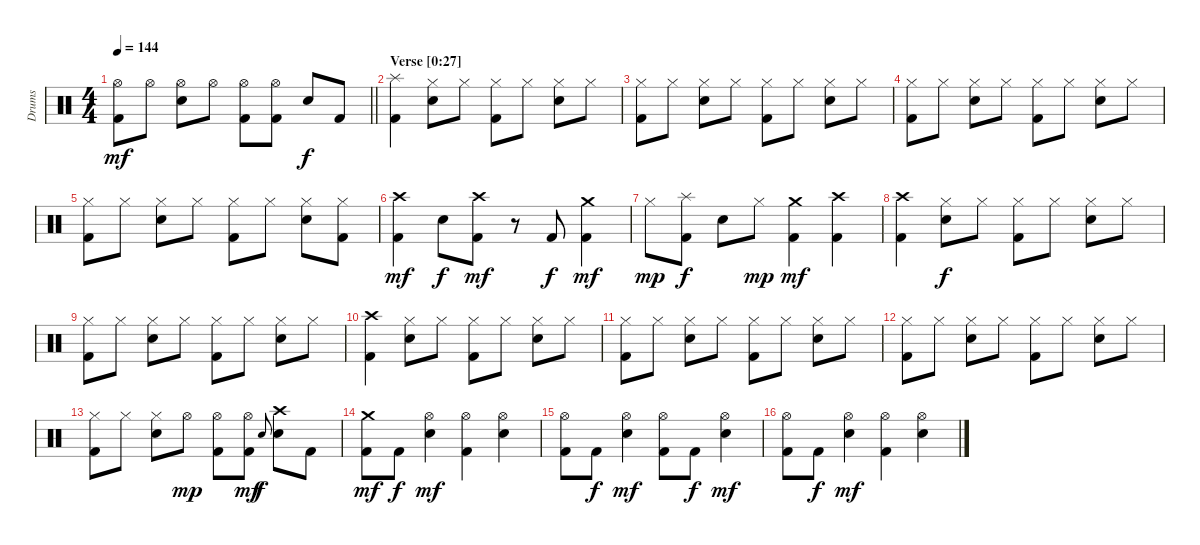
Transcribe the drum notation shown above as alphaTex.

\track ("Drums" "Drums") {instrument percussion}
\staff {score}
\articulation defaults
\ts (4 4)
\tempo 144
\clef neutral
\barLineRight lightlight
\ks c
("Hi-Hat (open)" "Kick (hit) 2").8{dy mf} "Hi-Hat (open)".8 ("Hi-Hat (open)" "Snare (hit) 2").8 "Hi-Hat (open)".8 ("Hi-Hat (open)" "Kick (hit) 2").8 ("Hi-Hat (open)" "Kick (hit) 2").8 "Snare (hit) 2".8{dy f} "Kick (hit) 2".8 |
\section ("" "Verse [0:27]")
("Splash (hit)" "Kick (hit) 2").4 ("Hi-Hat (closed)" "Snare (hit) 2").8 "Hi-Hat (closed)".8 ("Hi-Hat (closed)" "Kick (hit) 2").8 "Hi-Hat (closed)".8 ("Hi-Hat (closed)" "Snare (hit) 2").8 "Hi-Hat (closed)".8 |
("Hi-Hat (closed)" "Kick (hit) 2").8 "Hi-Hat (closed)".8 ("Hi-Hat (closed)" "Snare (hit) 2").8 "Hi-Hat (closed)".8 ("Hi-Hat (closed)" "Kick (hit) 2").8 "Hi-Hat (closed)".8 ("Hi-Hat (closed)" "Snare (hit) 2").8 "Hi-Hat (closed)".8 |
("Hi-Hat (closed)" "Kick (hit) 2").8 "Hi-Hat (closed)".8 ("Hi-Hat (closed)" "Snare (hit) 2").8 "Hi-Hat (closed)".8 ("Hi-Hat (closed)" "Kick (hit) 2").8 "Hi-Hat (closed)".8 ("Hi-Hat (closed)" "Snare (hit) 2").8 "Hi-Hat (closed)".8 |
("Hi-Hat (closed)" "Kick (hit) 2").8 "Hi-Hat (closed)".8 ("Hi-Hat (closed)" "Snare (hit) 2").8 "Hi-Hat (closed)".8 ("Hi-Hat (closed)" "Kick (hit) 2").8 "Hi-Hat (closed)".8 ("Hi-Hat (closed)" "Snare (hit) 2").8 ("Hi-Hat (closed)" "Kick (hit) 2").8 |
("Crash high (hit)" "Kick (hit) 2").4{dy mf} "Snare (hit) 2".8{dy f} ("Crash high (hit)" "Kick (hit) 2").8{dy mf} r.8 "Kick (hit) 2".8{dy f} ("Crash medium (hit)" "Kick (hit) 2").4{dy mf} |
"Hi-Hat (closed)".8{dy mp} ("Splash (hit)" "Kick (hit) 2").8{dy f} "Snare (hit) 2".8 "Hi-Hat (closed)".8{dy mp} ("Crash medium (hit)" "Kick (hit) 2").4{dy mf} ("Crash high (hit)" "Kick (hit) 2").4 |
("Crash high (hit)" "Kick (hit) 2").4 ("Hi-Hat (closed)" "Snare (hit) 2").8{dy f} "Hi-Hat (closed)".8 ("Hi-Hat (closed)" "Kick (hit) 2").8 "Hi-Hat (closed)".8 ("Hi-Hat (closed)" "Snare (hit) 2").8 "Hi-Hat (closed)".8 |
("Hi-Hat (closed)" "Kick (hit) 2").8 "Hi-Hat (closed)".8 ("Hi-Hat (closed)" "Snare (hit) 2").8 "Hi-Hat (closed)".8 ("Hi-Hat (closed)" "Kick (hit) 2").8 "Hi-Hat (closed)".8 ("Hi-Hat (closed)" "Snare (hit) 2").8 "Hi-Hat (closed)".8 |
("Crash high (hit)" "Kick (hit) 2").4 ("Hi-Hat (closed)" "Snare (hit) 2").8 "Hi-Hat (closed)".8 ("Hi-Hat (closed)" "Kick (hit) 2").8 "Hi-Hat (closed)".8 ("Hi-Hat (closed)" "Snare (hit) 2").8 "Hi-Hat (closed)".8 |
("Hi-Hat (closed)" "Kick (hit) 2").8 "Hi-Hat (closed)".8 ("Hi-Hat (closed)" "Snare (hit) 2").8 "Hi-Hat (closed)".8 ("Hi-Hat (closed)" "Kick (hit) 2").8 "Hi-Hat (closed)".8 ("Hi-Hat (closed)" "Snare (hit) 2").8 "Hi-Hat (closed)".8 |
("Hi-Hat (closed)" "Kick (hit) 2").8 "Hi-Hat (closed)".8 ("Hi-Hat (closed)" "Snare (hit) 2").8 "Hi-Hat (closed)".8 ("Hi-Hat (closed)" "Kick (hit) 2").8 "Hi-Hat (closed)".8 ("Hi-Hat (closed)" "Snare (hit) 2").8 "Hi-Hat (closed)".8 |
("Hi-Hat (closed)" "Kick (hit) 2").8 "Hi-Hat (closed)".8 ("Hi-Hat (closed)" "Snare (hit) 2").8 "Hi-Hat (open)".8{dy mp} ("Hi-Hat (open)" "Kick (hit) 2").8 ("Hi-Hat (open)" "Kick (hit) 2").8{dy mf} "Snare (hit) 2".8{gr onbeat dy f} ("Crash high (hit)" "Snare (hit) 2").8 "Kick (hit) 2".8 |
("Crash medium (hit)" "Kick (hit) 2").8{dy mf} "Kick (hit) 2".8{dy f} ("Hi-Hat (open)" "Snare (hit) 2").4{dy mf} ("Hi-Hat (open)" "Kick (hit) 2").4 ("Hi-Hat (open)" "Snare (hit) 2").4 |
("Hi-Hat (open)" "Kick (hit) 2").8 "Kick (hit) 2".8{dy f} ("Hi-Hat (open)" "Snare (hit) 2").4{dy mf} ("Hi-Hat (open)" "Kick (hit) 2").8 "Kick (hit) 2".8{dy f} ("Hi-Hat (open)" "Snare (hit) 2").4{dy mf} |
("Hi-Hat (open)" "Kick (hit) 2").8 "Kick (hit) 2".8{dy f} ("Hi-Hat (open)" "Snare (hit) 2").4{dy mf} ("Hi-Hat (open)" "Kick (hit) 2").4 ("Hi-Hat (open)" "Snare (hit) 2").4
